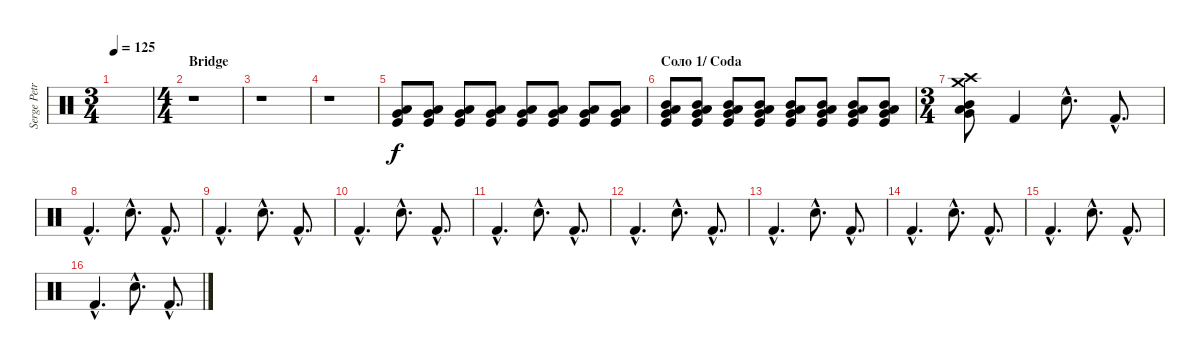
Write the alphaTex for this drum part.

\track ("Serge Petrone" "Serge Petr") {instrument percussion}
\staff {score}
\articulation defaults
\ts (3 4)
\tempo 125
\clef neutral
\ks c
|
\ts (4 4)
\section ("" "Bridge")
r.1 |
r.1 |
r.1 |
("Low Floor Tom (hit)" "Very Low Tom (hit)" "Kick (hit)").8 ("Low Floor Tom (hit)" "Very Low Tom (hit)" "Kick (hit)").8 ("Low Floor Tom (hit)" "Very Low Tom (hit)" "Kick (hit)").8 ("Low Floor Tom (hit)" "Very Low Tom (hit)" "Kick (hit)").8 ("Low Floor Tom (hit)" "Very Low Tom (hit)" "Kick (hit)").8 ("Low Floor Tom (hit)" "Very Low Tom (hit)" "Kick (hit)").8 ("Low Floor Tom (hit)" "Very Low Tom (hit)" "Kick (hit)").8 ("Low Floor Tom (hit)" "Very Low Tom (hit)" "Kick (hit)").8 |
\section ("" "Соло 1/ Coda")
("Low Floor Tom (hit)" "Very Low Tom (hit)" "Kick (hit)" "Mid Tom (hit)").8 ("Low Floor Tom (hit)" "Very Low Tom (hit)" "Kick (hit)" "Mid Tom (hit)").8 ("Low Floor Tom (hit)" "Very Low Tom (hit)" "Kick (hit)" "Mid Tom (hit)").8 ("Low Floor Tom (hit)" "Very Low Tom (hit)" "Kick (hit)" "Mid Tom (hit)").8 ("Low Floor Tom (hit)" "Very Low Tom (hit)" "Kick (hit)" "Mid Tom (hit)").8 ("Low Floor Tom (hit)" "Very Low Tom (hit)" "Kick (hit)" "Mid Tom (hit)").8 ("Low Floor Tom (hit)" "Very Low Tom (hit)" "Kick (hit)" "Mid Tom (hit)").8 ("Low Floor Tom (hit)" "Very Low Tom (hit)" "Kick (hit)" "Mid Tom (hit)").8 |
\ts (3 4)
("Low Floor Tom (hit)" "Very Low Tom (hit)" "Crash high (hit)" "Mid Tom (hit)" "Crash medium (hit)").8 "Kick (hit) 2".4 "Snare (hit) 2"{hac}.8{d} "Kick (hit) 2"{hac}.8{d} |
"Kick (hit) 2"{hac}.4{d} "Snare (hit) 2"{hac}.8{d} "Kick (hit) 2"{hac}.8{d} |
"Kick (hit) 2"{hac}.4{d} "Snare (hit) 2"{hac}.8{d} "Kick (hit) 2"{hac}.8{d} |
"Kick (hit) 2"{hac}.4{d} "Snare (hit) 2"{hac}.8{d} "Kick (hit) 2"{hac}.8{d} |
"Kick (hit) 2"{hac}.4{d} "Snare (hit) 2"{hac}.8{d} "Kick (hit) 2"{hac}.8{d} |
"Kick (hit) 2"{hac}.4{d} "Snare (hit) 2"{hac}.8{d} "Kick (hit) 2"{hac}.8{d} |
"Kick (hit) 2"{hac}.4{d} "Snare (hit) 2"{hac}.8{d} "Kick (hit) 2"{hac}.8{d} |
"Kick (hit) 2"{hac}.4{d} "Snare (hit) 2"{hac}.8{d} "Kick (hit) 2"{hac}.8{d} |
"Kick (hit) 2"{hac}.4{d} "Snare (hit) 2"{hac}.8{d} "Kick (hit) 2"{hac}.8{d} |
"Kick (hit) 2"{hac}.4{d} "Snare (hit) 2"{hac}.8{d} "Kick (hit) 2"{hac}.8{d}
